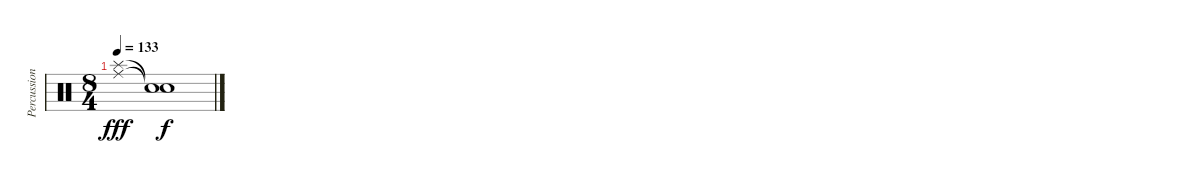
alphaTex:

\track ("Percussion" "Percussion") {instrument percussion}
\staff {score}
\articulation defaults
\ts (8 4)
\tempo 133
\clef neutral
\ks c
("Ride (middle)" "Splash (hit)").1{dy fff} ("Snare (hit)"{t} "Snare (hit)"{t}).1{dy f}
